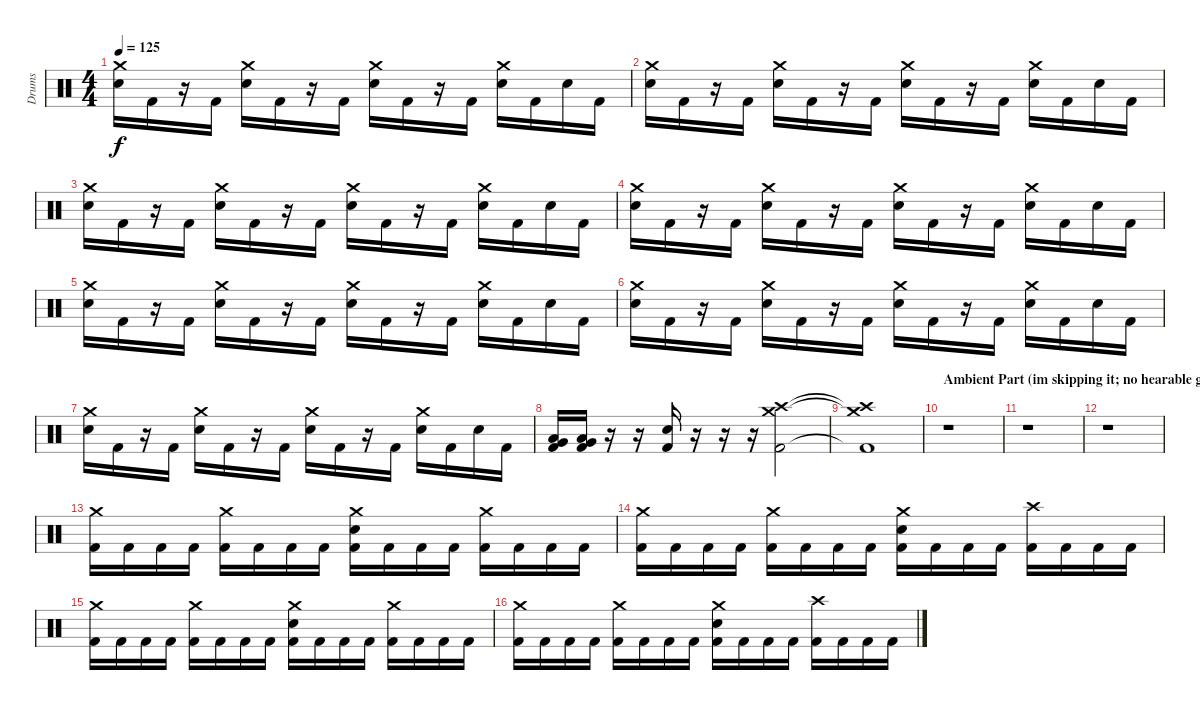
\track ("Drums" "Drums") {instrument percussion}
\staff {score}
\articulation defaults
\ts (4 4)
\tempo 125
\clef neutral
\ks c
("Crash medium (hit)" "Electric Snare (hit)").16{dy f} "Kick (hit) 2".16 r.16 "Kick (hit) 2".16 ("Crash medium (hit)" "Electric Snare (hit)").16 "Kick (hit) 2".16 r.16 "Kick (hit) 2".16 ("Crash medium (hit)" "Electric Snare (hit)").16 "Kick (hit) 2".16 r.16 "Kick (hit) 2".16 ("Crash medium (hit)" "Electric Snare (hit)").16 "Kick (hit) 2".16 "Electric Snare (hit)".16 "Kick (hit) 2".16 |
("Crash medium (hit)" "Electric Snare (hit)").16 "Kick (hit) 2".16 r.16 "Kick (hit) 2".16 ("Crash medium (hit)" "Electric Snare (hit)").16 "Kick (hit) 2".16 r.16 "Kick (hit) 2".16 ("Crash medium (hit)" "Electric Snare (hit)").16 "Kick (hit) 2".16 r.16 "Kick (hit) 2".16 ("Crash medium (hit)" "Electric Snare (hit)").16 "Kick (hit) 2".16 "Electric Snare (hit)".16 "Kick (hit) 2".16 |
("Crash medium (hit)" "Electric Snare (hit)").16 "Kick (hit) 2".16 r.16 "Kick (hit) 2".16 ("Crash medium (hit)" "Electric Snare (hit)").16 "Kick (hit) 2".16 r.16 "Kick (hit) 2".16 ("Crash medium (hit)" "Electric Snare (hit)").16 "Kick (hit) 2".16 r.16 "Kick (hit) 2".16 ("Crash medium (hit)" "Electric Snare (hit)").16 "Kick (hit) 2".16 "Electric Snare (hit)".16 "Kick (hit) 2".16 |
("Crash medium (hit)" "Electric Snare (hit)").16 "Kick (hit) 2".16 r.16 "Kick (hit) 2".16 ("Crash medium (hit)" "Electric Snare (hit)").16 "Kick (hit) 2".16 r.16 "Kick (hit) 2".16 ("Crash medium (hit)" "Electric Snare (hit)").16 "Kick (hit) 2".16 r.16 "Kick (hit) 2".16 ("Crash medium (hit)" "Electric Snare (hit)").16 "Kick (hit) 2".16 "Electric Snare (hit)".16 "Kick (hit) 2".16 |
("Crash medium (hit)" "Electric Snare (hit)").16 "Kick (hit) 2".16 r.16 "Kick (hit) 2".16 ("Crash medium (hit)" "Electric Snare (hit)").16 "Kick (hit) 2".16 r.16 "Kick (hit) 2".16 ("Crash medium (hit)" "Electric Snare (hit)").16 "Kick (hit) 2".16 r.16 "Kick (hit) 2".16 ("Crash medium (hit)" "Electric Snare (hit)").16 "Kick (hit) 2".16 "Electric Snare (hit)".16 "Kick (hit) 2".16 |
("Crash medium (hit)" "Electric Snare (hit)").16 "Kick (hit) 2".16 r.16 "Kick (hit) 2".16 ("Crash medium (hit)" "Electric Snare (hit)").16 "Kick (hit) 2".16 r.16 "Kick (hit) 2".16 ("Crash medium (hit)" "Electric Snare (hit)").16 "Kick (hit) 2".16 r.16 "Kick (hit) 2".16 ("Crash medium (hit)" "Electric Snare (hit)").16 "Kick (hit) 2".16 "Electric Snare (hit)".16 "Kick (hit) 2".16 |
("Crash medium (hit)" "Electric Snare (hit)").16 "Kick (hit) 2".16 r.16 "Kick (hit) 2".16 ("Crash medium (hit)" "Electric Snare (hit)").16 "Kick (hit) 2".16 r.16 "Kick (hit) 2".16 ("Crash medium (hit)" "Electric Snare (hit)").16 "Kick (hit) 2".16 r.16 "Kick (hit) 2".16 ("Crash medium (hit)" "Electric Snare (hit)").16 "Kick (hit) 2".16 "Electric Snare (hit)".16 "Kick (hit) 2".16 |
("Very Low Tom (hit)" "Low Floor Tom (hit)" "Kick (hit) 2").16 ("Very Low Tom (hit)" "Low Floor Tom (hit)" "Kick (hit) 2").16 r.16 r.16 ("Electric Snare (hit)" "Kick (hit) 2").16 r.16 r.16 r.16 ("Crash medium (hit)" "Crash high (hit)" "Kick (hit) 2").2 |
("Crash medium (hit)"{t} "Crash high (hit)"{t} "Kick (hit) 2"{t}).1 |
\section ("" "Ambient Part (im skipping it; no hearable guitar")
r.1 |
r.1 |
r.1 |
("Crash medium (hit)" "Kick (hit) 2").16 "Kick (hit) 2".16 "Kick (hit) 2".16 "Kick (hit) 2".16 ("Crash medium (hit)" "Kick (hit) 2").16 "Kick (hit) 2".16 "Kick (hit) 2".16 "Kick (hit) 2".16 ("Crash medium (hit)" "Electric Snare (hit)" "Kick (hit) 2").16 "Kick (hit) 2".16 "Kick (hit) 2".16 "Kick (hit) 2".16 ("Crash medium (hit)" "Kick (hit) 2").16 "Kick (hit) 2".16 "Kick (hit) 2".16 "Kick (hit) 2".16 |
("Crash medium (hit)" "Kick (hit) 2").16 "Kick (hit) 2".16 "Kick (hit) 2".16 "Kick (hit) 2".16 ("Crash medium (hit)" "Kick (hit) 2").16 "Kick (hit) 2".16 "Kick (hit) 2".16 "Kick (hit) 2".16 ("Crash medium (hit)" "Electric Snare (hit)" "Kick (hit) 2").16 "Kick (hit) 2".16 "Kick (hit) 2".16 "Kick (hit) 2".16 ("Crash high (hit)" "Kick (hit) 2").16 "Kick (hit) 2".16 "Kick (hit) 2".16 "Kick (hit) 2".16 |
("Crash medium (hit)" "Kick (hit) 2").16 "Kick (hit) 2".16 "Kick (hit) 2".16 "Kick (hit) 2".16 ("Crash medium (hit)" "Kick (hit) 2").16 "Kick (hit) 2".16 "Kick (hit) 2".16 "Kick (hit) 2".16 ("Crash medium (hit)" "Electric Snare (hit)" "Kick (hit) 2").16 "Kick (hit) 2".16 "Kick (hit) 2".16 "Kick (hit) 2".16 ("Crash medium (hit)" "Kick (hit) 2").16 "Kick (hit) 2".16 "Kick (hit) 2".16 "Kick (hit) 2".16 |
("Crash medium (hit)" "Kick (hit) 2").16 "Kick (hit) 2".16 "Kick (hit) 2".16 "Kick (hit) 2".16 ("Crash medium (hit)" "Kick (hit) 2").16 "Kick (hit) 2".16 "Kick (hit) 2".16 "Kick (hit) 2".16 ("Crash medium (hit)" "Electric Snare (hit)" "Kick (hit) 2").16 "Kick (hit) 2".16 "Kick (hit) 2".16 "Kick (hit) 2".16 ("Crash high (hit)" "Kick (hit) 2").16 "Kick (hit) 2".16 "Kick (hit) 2".16 "Kick (hit) 2".16
